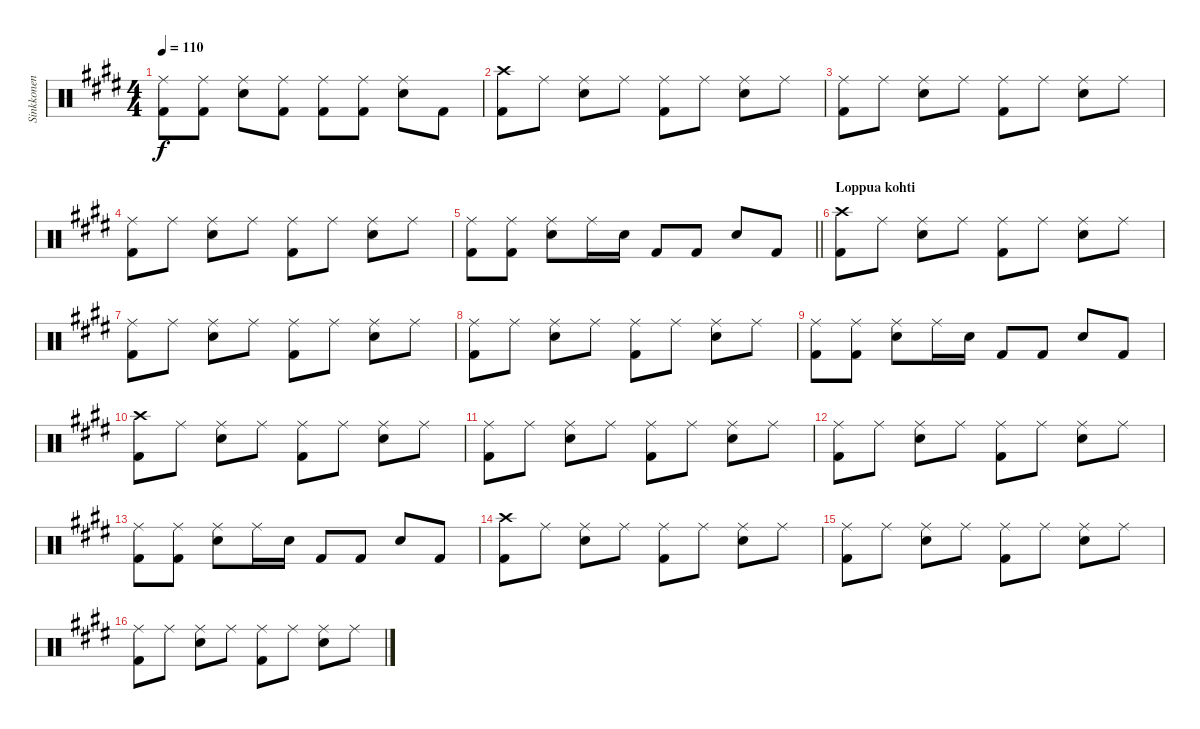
\track ("Sinkkonen" "Sinkkonen") {instrument percussion}
\staff {score}
\articulation defaults
\ts (4 4)
\tempo 110
\clef neutral
\ks c#minor
("Ride (middle)" "Kick (hit) 2").8{dy f} ("Ride (middle)" "Kick (hit) 2").8 ("Ride (middle)" "Snare (hit) 2").8 ("Ride (middle)" "Kick (hit) 2").8 ("Ride (middle)" "Kick (hit) 2").8 ("Ride (middle)" "Kick (hit) 2").8 ("Ride (middle)" "Snare (hit) 2").8 "Kick (hit) 2".8 |
("Crash high (hit)" "Kick (hit) 2").8 "Ride (middle)".8 ("Ride (middle)" "Snare (hit) 2").8 "Ride (middle)".8 ("Ride (middle)" "Kick (hit) 2").8 "Ride (middle)".8 ("Ride (middle)" "Snare (hit) 2").8 "Ride (middle)".8 |
("Ride (middle)" "Kick (hit) 2").8 "Ride (middle)".8 ("Ride (middle)" "Snare (hit) 2").8 "Ride (middle)".8 ("Ride (middle)" "Kick (hit) 2").8 "Ride (middle)".8 ("Ride (middle)" "Snare (hit) 2").8 "Ride (middle)".8 |
("Ride (middle)" "Kick (hit) 2").8 "Ride (middle)".8 ("Ride (middle)" "Snare (hit) 2").8 "Ride (middle)".8 ("Ride (middle)" "Kick (hit) 2").8 "Ride (middle)".8 ("Ride (middle)" "Snare (hit) 2").8 "Ride (middle)".8 |
\barLineRight lightlight
("Ride (middle)" "Kick (hit) 2").8 ("Ride (middle)" "Kick (hit) 2").8 ("Ride (middle)" "Snare (hit) 2").8 "Ride (middle)".16 "Snare (hit) 2".16 "Kick (hit) 2".8 "Kick (hit) 2".8 "Snare (hit) 2".8 "Kick (hit) 2".8 |
\section ("" "Loppua kohti")
("Crash high (hit)" "Kick (hit) 2").8 "Ride (middle)".8 ("Ride (middle)" "Snare (hit) 2").8 "Ride (middle)".8 ("Ride (middle)" "Kick (hit) 2").8 "Ride (middle)".8 ("Ride (middle)" "Snare (hit) 2").8 "Ride (middle)".8 |
("Ride (middle)" "Kick (hit) 2").8 "Ride (middle)".8 ("Ride (middle)" "Snare (hit) 2").8 "Ride (middle)".8 ("Ride (middle)" "Kick (hit) 2").8 "Ride (middle)".8 ("Ride (middle)" "Snare (hit) 2").8 "Ride (middle)".8 |
("Ride (middle)" "Kick (hit) 2").8 "Ride (middle)".8 ("Ride (middle)" "Snare (hit) 2").8 "Ride (middle)".8 ("Ride (middle)" "Kick (hit) 2").8 "Ride (middle)".8 ("Ride (middle)" "Snare (hit) 2").8 "Ride (middle)".8 |
("Ride (middle)" "Kick (hit) 2").8 ("Ride (middle)" "Kick (hit) 2").8 ("Ride (middle)" "Snare (hit) 2").8 "Ride (middle)".16 "Snare (hit) 2".16 "Kick (hit) 2".8 "Kick (hit) 2".8 "Snare (hit) 2".8 "Kick (hit) 2".8 |
("Crash high (hit)" "Kick (hit) 2").8 "Ride (middle)".8 ("Ride (middle)" "Snare (hit) 2").8 "Ride (middle)".8 ("Ride (middle)" "Kick (hit) 2").8 "Ride (middle)".8 ("Ride (middle)" "Snare (hit) 2").8 "Ride (middle)".8 |
("Ride (middle)" "Kick (hit) 2").8 "Ride (middle)".8 ("Ride (middle)" "Snare (hit) 2").8 "Ride (middle)".8 ("Ride (middle)" "Kick (hit) 2").8 "Ride (middle)".8 ("Ride (middle)" "Snare (hit) 2").8 "Ride (middle)".8 |
("Ride (middle)" "Kick (hit) 2").8 "Ride (middle)".8 ("Ride (middle)" "Snare (hit) 2").8 "Ride (middle)".8 ("Ride (middle)" "Kick (hit) 2").8 "Ride (middle)".8 ("Ride (middle)" "Snare (hit) 2").8 "Ride (middle)".8 |
("Ride (middle)" "Kick (hit) 2").8 ("Ride (middle)" "Kick (hit) 2").8 ("Ride (middle)" "Snare (hit) 2").8 "Ride (middle)".16 "Snare (hit) 2".16 "Kick (hit) 2".8 "Kick (hit) 2".8 "Snare (hit) 2".8 "Kick (hit) 2".8 |
("Crash high (hit)" "Kick (hit) 2").8 "Ride (middle)".8 ("Ride (middle)" "Snare (hit) 2").8 "Ride (middle)".8 ("Ride (middle)" "Kick (hit) 2").8 "Ride (middle)".8 ("Ride (middle)" "Snare (hit) 2").8 "Ride (middle)".8 |
("Ride (middle)" "Kick (hit) 2").8 "Ride (middle)".8 ("Ride (middle)" "Snare (hit) 2").8 "Ride (middle)".8 ("Ride (middle)" "Kick (hit) 2").8 "Ride (middle)".8 ("Ride (middle)" "Snare (hit) 2").8 "Ride (middle)".8 |
("Ride (middle)" "Kick (hit) 2").8 "Ride (middle)".8 ("Ride (middle)" "Snare (hit) 2").8 "Ride (middle)".8 ("Ride (middle)" "Kick (hit) 2").8 "Ride (middle)".8 ("Ride (middle)" "Snare (hit) 2").8 "Ride (middle)".8
